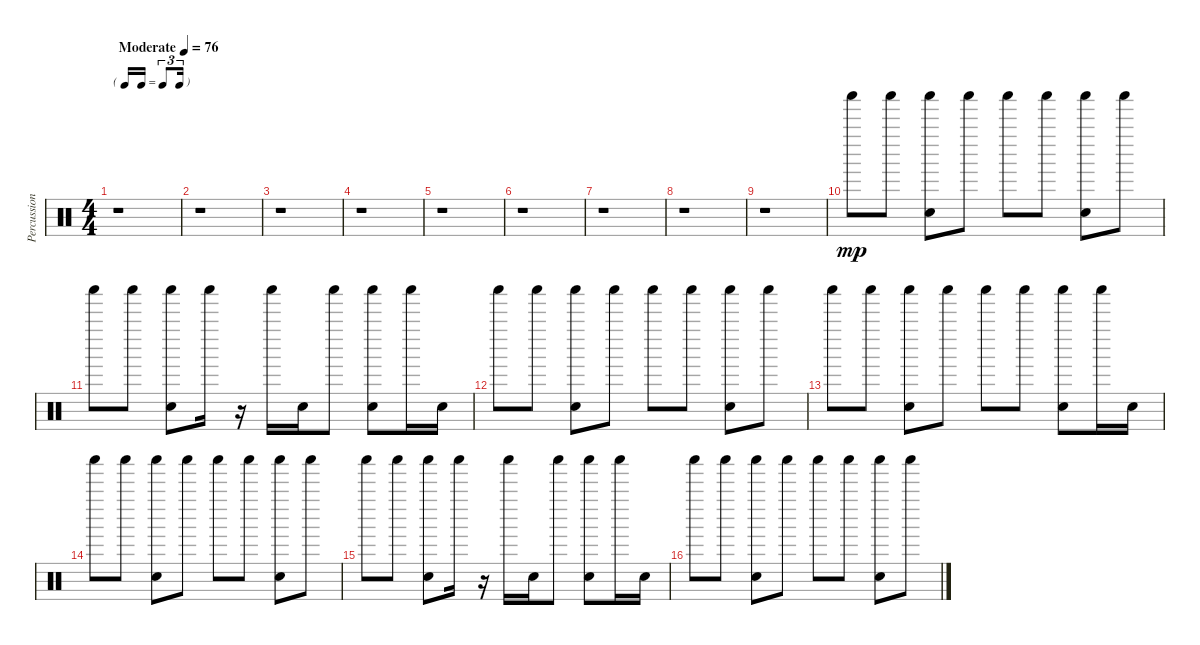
\track ("Percussions" "Percussion") {instrument percussion}
\staff {score}
\articulation defaults
\ts (4 4)
\tf triplet16th
\tempo (76 "Moderate")
\clef neutral
\ks c
r.1{dy mp} |
r.1 |
r.1 |
r.1 |
r.1 |
r.1 |
r.1 |
r.1 |
r.1 |
"Shaker (hit)".8 "Shaker (hit)".8 ("Shaker (hit)" "Snare (hit) 2").8 "Shaker (hit)".8 "Shaker (hit)".8 "Shaker (hit)".8 ("Shaker (hit)" "Snare (hit) 2").8 "Shaker (hit)".8 |
"Shaker (hit)".8 "Shaker (hit)".8 ("Shaker (hit)" "Snare (hit) 2").8 "Shaker (hit)".16 r.16 "Shaker (hit)".16 "Snare (hit) 2".16 "Shaker (hit)".8 ("Shaker (hit)" "Snare (hit) 2").8 "Shaker (hit)".16 "Snare (hit) 2".16 |
"Shaker (hit)".8 "Shaker (hit)".8 ("Shaker (hit)" "Snare (hit) 2").8 "Shaker (hit)".8 "Shaker (hit)".8 "Shaker (hit)".8 ("Shaker (hit)" "Snare (hit) 2").8 "Shaker (hit)".8 |
"Shaker (hit)".8 "Shaker (hit)".8 ("Shaker (hit)" "Snare (hit) 2").8 "Shaker (hit)".8 "Shaker (hit)".8 "Shaker (hit)".8 ("Shaker (hit)" "Snare (hit) 2").8 "Shaker (hit)".16 "Snare (hit) 2".16 |
"Shaker (hit)".8 "Shaker (hit)".8 ("Shaker (hit)" "Snare (hit) 2").8 "Shaker (hit)".8 "Shaker (hit)".8 "Shaker (hit)".8 ("Shaker (hit)" "Snare (hit) 2").8 "Shaker (hit)".8 |
"Shaker (hit)".8 "Shaker (hit)".8 ("Shaker (hit)" "Snare (hit) 2").8 "Shaker (hit)".16 r.16 "Shaker (hit)".16 "Snare (hit) 2".16 "Shaker (hit)".8 ("Shaker (hit)" "Snare (hit) 2").8 "Shaker (hit)".16 "Snare (hit) 2".16 |
"Shaker (hit)".8 "Shaker (hit)".8 ("Shaker (hit)" "Snare (hit) 2").8 "Shaker (hit)".8 "Shaker (hit)".8 "Shaker (hit)".8 ("Shaker (hit)" "Snare (hit) 2").8 "Shaker (hit)".8
